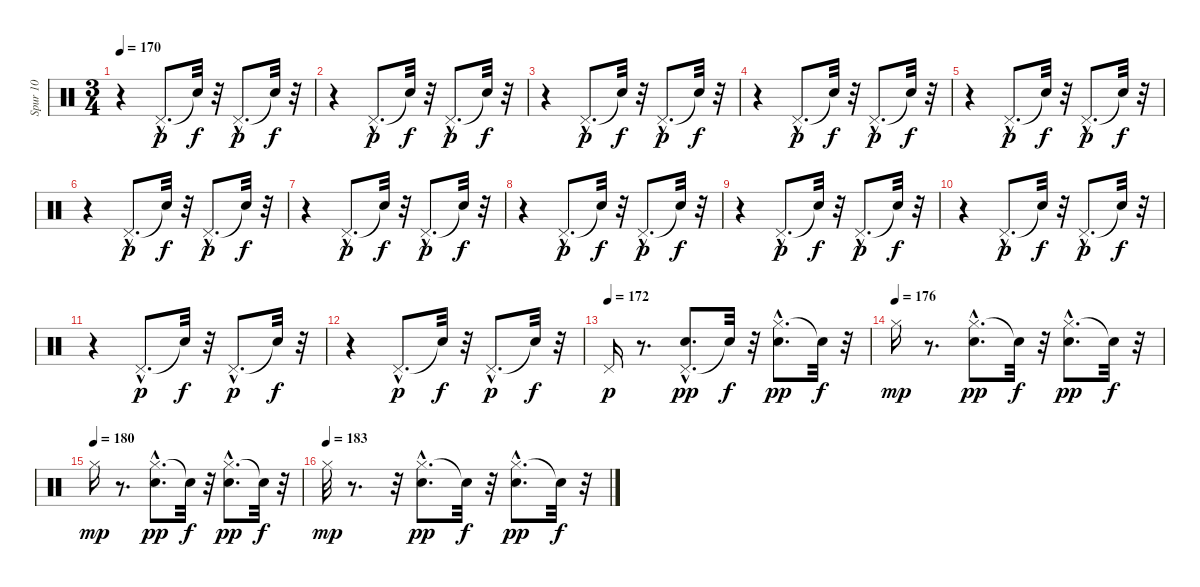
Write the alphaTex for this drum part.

\track ("Spur 10" "Spur 10") {instrument percussion}
\staff {score}
\articulation defaults
\ts (3 4)
\tempo 170
\clef neutral
\ks c
r.4{dy f} "Pedal Hi-Hat (hit)"{hac}.8{d dy p} "Snare (hit)"{t}.32{dy f} r.32 "Pedal Hi-Hat (hit)"{hac}.8{d dy p} "Snare (hit)"{t}.32{dy f} r.32 |
r.4 "Pedal Hi-Hat (hit)"{hac}.8{d dy p} "Snare (hit)"{t}.32{dy f} r.32 "Pedal Hi-Hat (hit)"{hac}.8{d dy p} "Snare (hit)"{t}.32{dy f} r.32 |
r.4 "Pedal Hi-Hat (hit)"{hac}.8{d dy p} "Snare (hit)"{t}.32{dy f} r.32 "Pedal Hi-Hat (hit)"{hac}.8{d dy p} "Snare (hit)"{t}.32{dy f} r.32 |
r.4 "Pedal Hi-Hat (hit)"{hac}.8{d dy p} "Snare (hit)"{t}.32{dy f} r.32 "Pedal Hi-Hat (hit)"{hac}.8{d dy p} "Snare (hit)"{t}.32{dy f} r.32 |
r.4 "Pedal Hi-Hat (hit)"{hac}.8{d dy p} "Snare (hit)"{t}.32{dy f} r.32 "Pedal Hi-Hat (hit)"{hac}.8{d dy p} "Snare (hit)"{t}.32{dy f} r.32 |
r.4 "Pedal Hi-Hat (hit)"{hac}.8{d dy p} "Snare (hit)"{t}.32{dy f} r.32 "Pedal Hi-Hat (hit)"{hac}.8{d dy p} "Snare (hit)"{t}.32{dy f} r.32 |
r.4 "Pedal Hi-Hat (hit)"{hac}.8{d dy p} "Snare (hit)"{t}.32{dy f} r.32 "Pedal Hi-Hat (hit)"{hac}.8{d dy p} "Snare (hit)"{t}.32{dy f} r.32 |
r.4 "Pedal Hi-Hat (hit)"{hac}.8{d dy p} "Snare (hit)"{t}.32{dy f} r.32 "Pedal Hi-Hat (hit)"{hac}.8{d dy p} "Snare (hit)"{t}.32{dy f} r.32 |
r.4 "Pedal Hi-Hat (hit)"{hac}.8{d dy p} "Snare (hit)"{t}.32{dy f} r.32 "Pedal Hi-Hat (hit)"{hac}.8{d dy p} "Snare (hit)"{t}.32{dy f} r.32 |
r.4 "Pedal Hi-Hat (hit)"{hac}.8{d dy p} "Snare (hit)"{t}.32{dy f} r.32 "Pedal Hi-Hat (hit)"{hac}.8{d dy p} "Snare (hit)"{t}.32{dy f} r.32 |
r.4 "Pedal Hi-Hat (hit)"{hac}.8{d dy p} "Snare (hit)"{t}.32{dy f} r.32 "Pedal Hi-Hat (hit)"{hac}.8{d dy p} "Snare (hit)"{t}.32{dy f} r.32 |
r.4 "Pedal Hi-Hat (hit)"{hac}.8{d dy p} "Snare (hit)"{t}.32{dy f} r.32 "Pedal Hi-Hat (hit)"{hac}.8{d dy p} "Snare (hit)"{t}.32{dy f} r.32 |
\tempo (172)
"Pedal Hi-Hat (hit)".16{dy p} r.8{d} ("Pedal Hi-Hat (hit)"{hac} "Snare (hit) 2").8{d dy pp} "Snare (hit)"{t}.32{dy f} r.32 ("Hi-Hat (closed)"{hac} "Snare (hit) 2").8{d dy pp} "Snare (hit)"{t}.32{dy f} r.32 |
\tempo (176)
"Hi-Hat (closed)".16{dy mp} r.8{d} ("Hi-Hat (closed)"{hac} "Snare (hit) 2").8{d dy pp} "Snare (hit)"{t}.32{dy f} r.32 ("Hi-Hat (closed)"{hac} "Snare (hit) 2").8{d dy pp} "Snare (hit)"{t}.32{dy f} r.32 |
\tempo (180)
"Hi-Hat (closed)".16{dy mp} r.8{d} ("Hi-Hat (closed)"{hac} "Snare (hit) 2").8{d dy pp} "Snare (hit)"{t}.32{dy f} r.32 ("Hi-Hat (closed)"{hac} "Snare (hit) 2").8{d dy pp} "Snare (hit)"{t}.32{dy f} r.32 |
\tempo (183)
"Hi-Hat (closed)".32{dy mp} r.8{d} r.32 ("Hi-Hat (closed)"{hac} "Snare (hit) 2").8{d dy pp} "Snare (hit)"{t}.32{dy f} r.32 ("Hi-Hat (closed)"{hac} "Snare (hit) 2").8{d dy pp} "Snare (hit)"{t}.32{dy f} r.32
